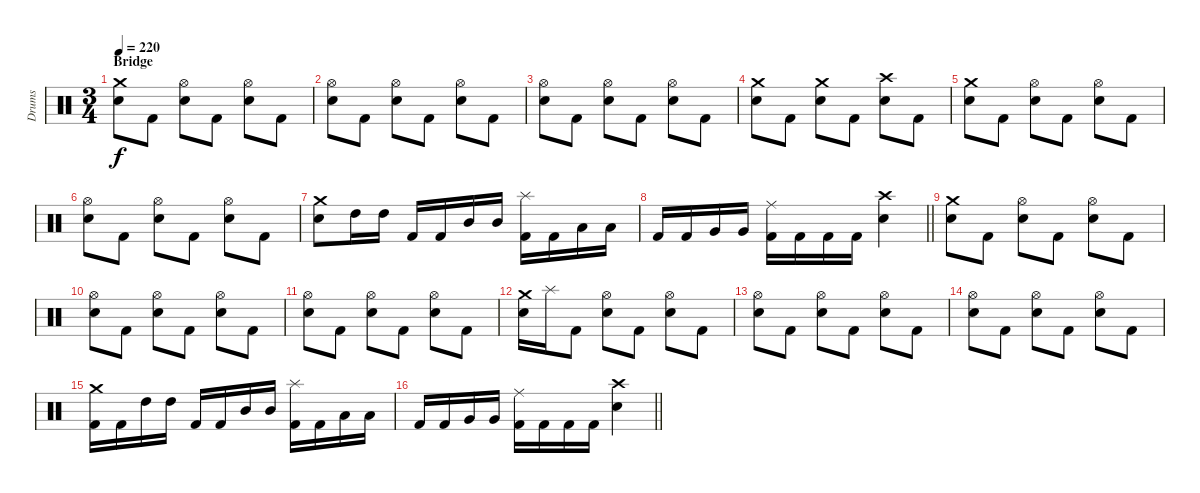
\track ("Drums" "Drums") {instrument percussion}
\staff {score}
\articulation defaults
\ts (3 4)
\section ("" "Bridge")
\tempo 220
\clef neutral
\ks c
("Crash medium (hit)" "Electric Snare (hit)").8{dy f} "Kick (hit) 2".8 ("Hi-Hat (open)" "Electric Snare (hit)").8 "Kick (hit) 2".8 ("Hi-Hat (open)" "Electric Snare (hit)").8 "Kick (hit) 2".8 |
("Hi-Hat (open)" "Electric Snare (hit)").8 "Kick (hit) 2".8 ("Hi-Hat (open)" "Electric Snare (hit)").8 "Kick (hit) 2".8 ("Hi-Hat (open)" "Electric Snare (hit)").8 "Kick (hit) 2".8 |
("Hi-Hat (open)" "Electric Snare (hit)").8 "Kick (hit) 2".8 ("Hi-Hat (open)" "Electric Snare (hit)").8 "Kick (hit) 2".8 ("Hi-Hat (open)" "Electric Snare (hit)").8 "Kick (hit) 2".8 |
("Crash medium (hit)" "Electric Snare (hit)").8 "Kick (hit) 2".8 ("Crash medium (hit)" "Electric Snare (hit)").8 "Kick (hit) 2".8 ("Crash high (hit)" "Electric Snare (hit)").8 "Kick (hit) 2".8 |
("Crash medium (hit)" "Electric Snare (hit)").8 "Kick (hit) 2".8 ("Hi-Hat (open)" "Electric Snare (hit)").8 "Kick (hit) 2".8 ("Hi-Hat (open)" "Electric Snare (hit)").8 "Kick (hit) 2".8 |
("Hi-Hat (open)" "Electric Snare (hit)").8 "Kick (hit) 2".8 ("Hi-Hat (open)" "Electric Snare (hit)").8 "Kick (hit) 2".8 ("Hi-Hat (open)" "Electric Snare (hit)").8 "Kick (hit) 2".8 |
("Crash medium (hit)" "Electric Snare (hit)").8 "High Tom (hit)".16 "High Tom (hit)".16 "Kick (hit) 2".16 "Kick (hit) 2".16 "Mid Tom (hit)".16 "Mid Tom (hit)".16 ("Splash (hit)" "Kick (hit) 2").16 "Kick (hit) 2".16 "Low Tom (hit)".16 "Low Tom (hit)".16 |
\barLineRight lightlight "Kick (hit) 2".16 "Kick (hit) 2".16 "Very Low Tom (hit)".16 "Very Low Tom (hit)".16
("Ride (middle)" "Kick (hit) 2").16 "Kick (hit) 2".16 "Kick (hit) 2".16 "Kick (hit) 2".16 ("Crash high (hit)" "Electric Snare (hit)").4 |
("Crash medium (hit)" "Electric Snare (hit)").8 "Kick (hit) 2".8 ("Hi-Hat (open)" "Electric Snare (hit)").8 "Kick (hit) 2".8 ("Hi-Hat (open)" "Electric Snare (hit)").8 "Kick (hit) 2".8 |
("Hi-Hat (open)" "Electric Snare (hit)").8 "Kick (hit) 2".8 ("Hi-Hat (open)" "Electric Snare (hit)").8 "Kick (hit) 2".8 ("Hi-Hat (open)" "Electric Snare (hit)").8 "Kick (hit) 2".8 |
("Hi-Hat (open)" "Electric Snare (hit)").8 "Kick (hit) 2".8 ("Hi-Hat (open)" "Electric Snare (hit)").8 "Kick (hit) 2".8 ("Hi-Hat (open)" "Electric Snare (hit)").8 "Kick (hit) 2".8 |
("Crash medium (hit)" "Electric Snare (hit)").16 "Splash (hit)".16 "Kick (hit) 2".8 ("Hi-Hat (open)" "Electric Snare (hit)").8 "Kick (hit) 2".8 ("Hi-Hat (open)" "Electric Snare (hit)").8 "Kick (hit) 2".8 |
("Hi-Hat (open)" "Electric Snare (hit)").8 "Kick (hit) 2".8 ("Hi-Hat (open)" "Electric Snare (hit)").8 "Kick (hit) 2".8 ("Hi-Hat (open)" "Electric Snare (hit)").8 "Kick (hit) 2".8 |
("Hi-Hat (open)" "Electric Snare (hit)").8 "Kick (hit) 2".8 ("Hi-Hat (open)" "Electric Snare (hit)").8 "Kick (hit) 2".8 ("Hi-Hat (open)" "Electric Snare (hit)").8 "Kick (hit) 2".8 |
("Crash medium (hit)" "Kick (hit) 2").16 "Kick (hit) 2".16 "High Tom (hit)".16 "High Tom (hit)".16 "Kick (hit) 2".16 "Kick (hit) 2".16 "Mid Tom (hit)".16 "Mid Tom (hit)".16 ("Splash (hit)" "Kick (hit) 2").16 "Kick (hit) 2".16 "Low Tom (hit)".16 "Low Tom (hit)".16 |
\barLineRight lightlight "Kick (hit) 2".16 "Kick (hit) 2".16 "Very Low Tom (hit)".16 "Very Low Tom (hit)".16
("Ride (middle)" "Kick (hit) 2").16 "Kick (hit) 2".16 "Kick (hit) 2".16 "Kick (hit) 2".16 ("Crash high (hit)" "Electric Snare (hit)").4
